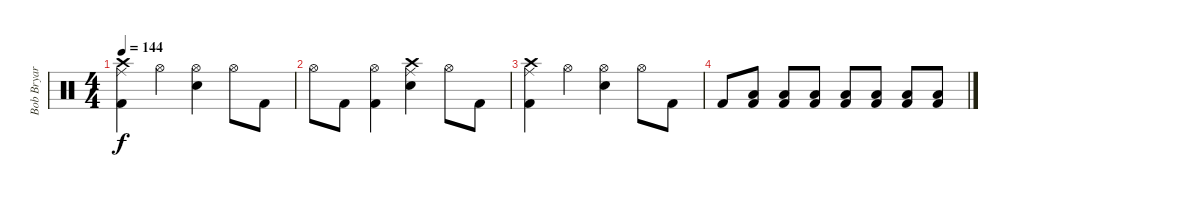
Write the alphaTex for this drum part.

\track ("Bob Bryar" "Bob Bryar") {instrument percussion}
\staff {score}
\articulation defaults
\ts (4 4)
\tempo 144
\clef neutral
\ks c
("Crash high (hit)" "Ride (middle)" "Kick (hit) 2").4{dy f} "Hi-Hat (open)".4 ("Hi-Hat (open)" "Snare (hit) 2").4 "Hi-Hat (open)".8 "Kick (hit) 2".8 |
"Hi-Hat (open)".8 "Kick (hit) 2".8 ("Kick (hit) 2" "Hi-Hat (open)").4 ("Ride (middle)" "Snare (hit) 2" "Crash high (hit)").4 "Hi-Hat (open)".8 "Kick (hit) 2".8 |
("Crash high (hit)" "Ride (middle)" "Kick (hit) 2").4 "Hi-Hat (open)".4 ("Hi-Hat (open)" "Snare (hit) 2").4 "Hi-Hat (open)".8 "Kick (hit) 2".8 |
"Kick (hit) 2".8 ("Kick (hit) 2" "Low Floor Tom (hit)").8 ("Low Floor Tom (hit)" "Kick (hit) 2").8 ("Low Floor Tom (hit)" "Kick (hit) 2").8 ("Kick (hit) 2" "Low Floor Tom (hit)").8 ("Low Floor Tom (hit)" "Kick (hit) 2").8 ("Low Floor Tom (hit)" "Kick (hit) 2").8 ("Low Floor Tom (hit)" "Kick (hit) 2").8
